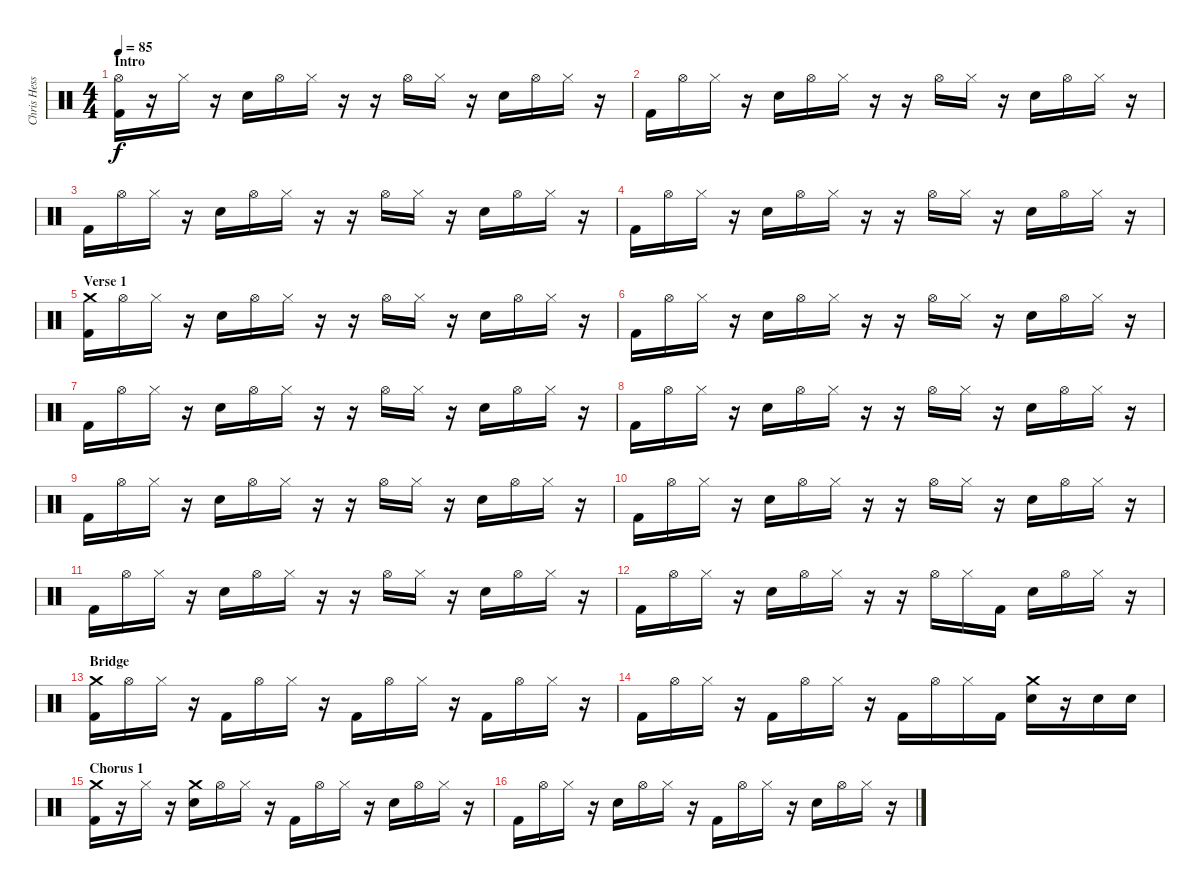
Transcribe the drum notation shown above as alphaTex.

\track ("Chris Hesse - Drums" "Chris Hess") {instrument percussion}
\staff {score}
\articulation defaults
\ts (4 4)
\section ("" "Intro")
\tempo 85
\clef neutral
\ks c
("Hi-Hat (open)" "Kick (hit) 2").16{dy f} r.16 "Hi-Hat (closed)".16 r.16 "Snare (hit) 2".16 "Hi-Hat (open)".16 "Hi-Hat (closed)".16 r.16 r.16 "Hi-Hat (open)".16 "Hi-Hat (closed)".16 r.16 "Snare (hit) 2".16 "Hi-Hat (open)".16 "Hi-Hat (closed)".16 r.16 |
"Kick (hit) 2".16 "Hi-Hat (open)".16 "Hi-Hat (closed)".16 r.16 "Snare (hit) 2".16 "Hi-Hat (open)".16 "Hi-Hat (closed)".16 r.16 r.16 "Hi-Hat (open)".16 "Hi-Hat (closed)".16 r.16 "Snare (hit) 2".16 "Hi-Hat (open)".16 "Hi-Hat (closed)".16 r.16 |
"Kick (hit) 2".16 "Hi-Hat (open)".16 "Hi-Hat (closed)".16 r.16 "Snare (hit) 2".16 "Hi-Hat (open)".16 "Hi-Hat (closed)".16 r.16 r.16 "Hi-Hat (open)".16 "Hi-Hat (closed)".16 r.16 "Snare (hit) 2".16 "Hi-Hat (open)".16 "Hi-Hat (closed)".16 r.16 |
"Kick (hit) 2".16 "Hi-Hat (open)".16 "Hi-Hat (closed)".16 r.16 "Snare (hit) 2".16 "Hi-Hat (open)".16 "Hi-Hat (closed)".16 r.16 r.16 "Hi-Hat (open)".16 "Hi-Hat (closed)".16 r.16 "Snare (hit) 2".16 "Hi-Hat (open)".16 "Hi-Hat (closed)".16 r.16 |
\section ("" "Verse 1")
("Crash medium (hit)" "Kick (hit) 2").16 "Hi-Hat (open)".16 "Hi-Hat (closed)".16 r.16 "Snare (hit) 2".16 "Hi-Hat (open)".16 "Hi-Hat (closed)".16 r.16 r.16 "Hi-Hat (open)".16 "Hi-Hat (closed)".16 r.16 "Snare (hit) 2".16 "Hi-Hat (open)".16 "Hi-Hat (closed)".16 r.16 |
"Kick (hit) 2".16 "Hi-Hat (open)".16 "Hi-Hat (closed)".16 r.16 "Snare (hit) 2".16 "Hi-Hat (open)".16 "Hi-Hat (closed)".16 r.16 r.16 "Hi-Hat (open)".16 "Hi-Hat (closed)".16 r.16 "Snare (hit) 2".16 "Hi-Hat (open)".16 "Hi-Hat (closed)".16 r.16 |
"Kick (hit) 2".16 "Hi-Hat (open)".16 "Hi-Hat (closed)".16 r.16 "Snare (hit) 2".16 "Hi-Hat (open)".16 "Hi-Hat (closed)".16 r.16 r.16 "Hi-Hat (open)".16 "Hi-Hat (closed)".16 r.16 "Snare (hit) 2".16 "Hi-Hat (open)".16 "Hi-Hat (closed)".16 r.16 |
"Kick (hit) 2".16 "Hi-Hat (open)".16 "Hi-Hat (closed)".16 r.16 "Snare (hit) 2".16 "Hi-Hat (open)".16 "Hi-Hat (closed)".16 r.16 r.16 "Hi-Hat (open)".16 "Hi-Hat (closed)".16 r.16 "Snare (hit) 2".16 "Hi-Hat (open)".16 "Hi-Hat (closed)".16 r.16 |
"Kick (hit) 2".16 "Hi-Hat (open)".16 "Hi-Hat (closed)".16 r.16 "Snare (hit) 2".16 "Hi-Hat (open)".16 "Hi-Hat (closed)".16 r.16 r.16 "Hi-Hat (open)".16 "Hi-Hat (closed)".16 r.16 "Snare (hit) 2".16 "Hi-Hat (open)".16 "Hi-Hat (closed)".16 r.16 |
"Kick (hit) 2".16 "Hi-Hat (open)".16 "Hi-Hat (closed)".16 r.16 "Snare (hit) 2".16 "Hi-Hat (open)".16 "Hi-Hat (closed)".16 r.16 r.16 "Hi-Hat (open)".16 "Hi-Hat (closed)".16 r.16 "Snare (hit) 2".16 "Hi-Hat (open)".16 "Hi-Hat (closed)".16 r.16 |
"Kick (hit) 2".16 "Hi-Hat (open)".16 "Hi-Hat (closed)".16 r.16 "Snare (hit) 2".16 "Hi-Hat (open)".16 "Hi-Hat (closed)".16 r.16 r.16 "Hi-Hat (open)".16 "Hi-Hat (closed)".16 r.16 "Snare (hit) 2".16 "Hi-Hat (open)".16 "Hi-Hat (closed)".16 r.16 |
"Kick (hit) 2".16 "Hi-Hat (open)".16 "Hi-Hat (closed)".16 r.16 "Snare (hit) 2".16 "Hi-Hat (open)".16 "Hi-Hat (closed)".16 r.16 r.16 "Hi-Hat (open)".16 "Hi-Hat (closed)".16 "Kick (hit) 2".16 "Snare (hit) 2".16 "Hi-Hat (open)".16 "Hi-Hat (closed)".16 r.16 |
\section ("" "Bridge")
("Crash medium (hit)" "Kick (hit) 2").16 "Hi-Hat (open)".16 "Hi-Hat (closed)".16 r.16 "Kick (hit) 2".16 "Hi-Hat (open)".16 "Hi-Hat (closed)".16 r.16 "Kick (hit) 2".16 "Hi-Hat (open)".16 "Hi-Hat (closed)".16 r.16 "Kick (hit) 2".16 "Hi-Hat (open)".16 "Hi-Hat (closed)".16 r.16 |
"Kick (hit) 2".16 "Hi-Hat (open)".16 "Hi-Hat (closed)".16 r.16 "Kick (hit) 2".16 "Hi-Hat (open)".16 "Hi-Hat (closed)".16 r.16 "Kick (hit) 2".16 "Hi-Hat (open)".16 "Hi-Hat (closed)".16 "Kick (hit) 2".16 ("Crash medium (hit)" "Snare (hit) 2").16 r.16 "Snare (hit) 2".16 "Snare (hit) 2".16 |
\section ("" "Chorus 1")
("Crash medium (hit)" "Kick (hit) 2").16 r.16 "Hi-Hat (closed)".16 r.16 ("Crash medium (hit)" "Snare (hit) 2").16 "Hi-Hat (open)".16 "Hi-Hat (closed)".16 r.16 "Kick (hit) 2".16 "Hi-Hat (open)".16 "Hi-Hat (closed)".16 r.16 "Snare (hit) 2".16 "Hi-Hat (open)".16 "Hi-Hat (closed)".16 r.16 |
"Kick (hit) 2".16 "Hi-Hat (open)".16 "Hi-Hat (closed)".16 r.16 "Snare (hit) 2".16 "Hi-Hat (open)".16 "Hi-Hat (closed)".16 r.16 "Kick (hit) 2".16 "Hi-Hat (open)".16 "Hi-Hat (closed)".16 r.16 "Snare (hit) 2".16 "Hi-Hat (open)".16 "Hi-Hat (closed)".16 r.16
